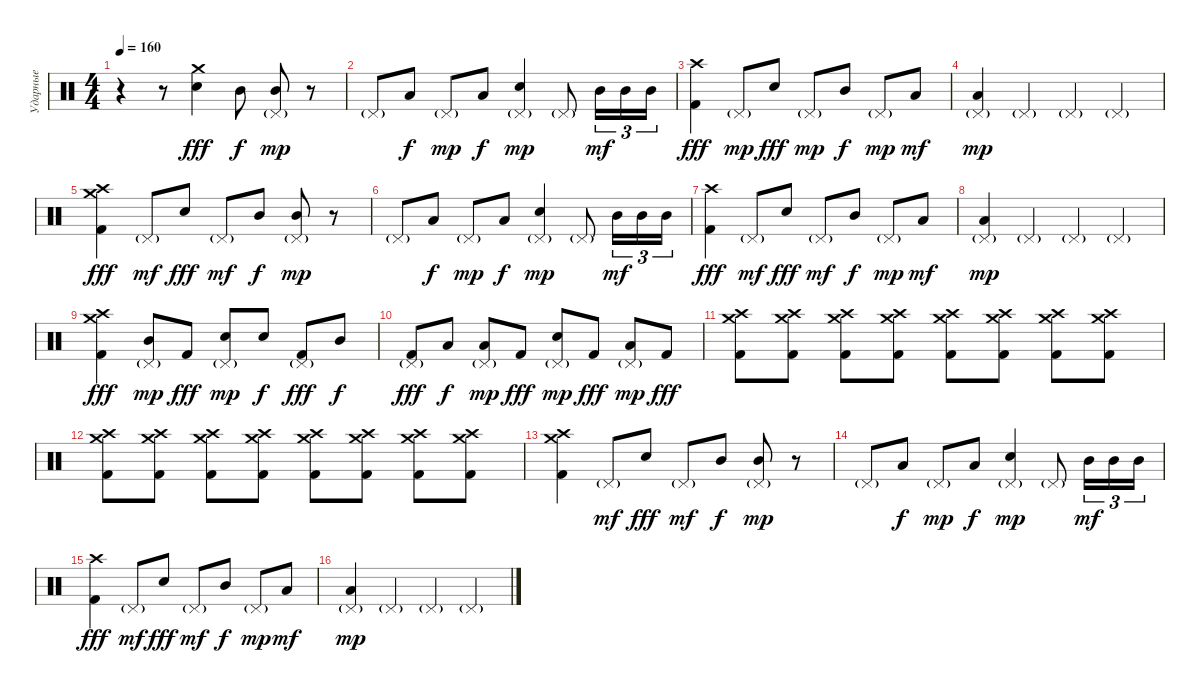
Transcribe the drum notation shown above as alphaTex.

\track ("Ударные" "Ударные") {instrument percussion}
\staff {score}
\articulation defaults
\ts (4 4)
\tempo 160
\clef neutral
\ks c
r.4{dy ff} r.8 ("Crash medium (hit)" "Electric Snare (hit)").4{dy fff} "Mid Tom (hit)".8{dy f} ("Mid Tom (hit)" "Pedal Hi-Hat (hit)"{g}).8{dy mp} r.8 |
"Pedal Hi-Hat (hit)"{g}.8 "Low Tom (hit)".8{dy f} "Pedal Hi-Hat (hit)"{g}.8{dy mp} "Low Floor Tom (hit)".8{dy f} ("Electric Snare (hit)" "Pedal Hi-Hat (hit)"{g}).4{dy mp} "Pedal Hi-Hat (hit)"{g}.8 "Mid Tom (hit)".16{tu (3 2) dy mf} "Mid Tom (hit)".16{tu (3 2)} "Mid Tom (hit)".16{tu (3 2)} |
("Crash high (hit)" "Kick (hit) 2").4{dy fff} "Pedal Hi-Hat (hit)"{g}.8{dy mp} "Electric Snare (hit)".8{dy fff} "Pedal Hi-Hat (hit)"{g}.8{dy mp} "Mid Tom (hit)".8{dy f} "Pedal Hi-Hat (hit)"{g}.8{dy mp} "Low Tom (hit)".8{dy mf} |
("Low Floor Tom (hit)" "Pedal Hi-Hat (hit)"{g}).4{dy mp} "Pedal Hi-Hat (hit)"{g}.4 "Pedal Hi-Hat (hit)"{g}.4 "Pedal Hi-Hat (hit)"{g}.4 |
("Crash high (hit)" "Crash medium (hit)" "Kick (hit) 2").4{dy fff} "Pedal Hi-Hat (hit)"{g}.8{dy mf} "Electric Snare (hit)".8{dy fff} "Pedal Hi-Hat (hit)"{g}.8{dy mf} "Mid Tom (hit)".8{dy f} ("Mid Tom (hit)" "Pedal Hi-Hat (hit)"{g}).8{dy mp} r.8 |
"Pedal Hi-Hat (hit)"{g}.8 "Low Tom (hit)".8{dy f} "Pedal Hi-Hat (hit)"{g}.8{dy mp} "Low Floor Tom (hit)".8{dy f} ("Electric Snare (hit)" "Pedal Hi-Hat (hit)"{g}).4{dy mp} "Pedal Hi-Hat (hit)"{g}.8 "Mid Tom (hit)".16{tu (3 2) dy mf} "Mid Tom (hit)".16{tu (3 2)} "Mid Tom (hit)".16{tu (3 2)} |
("Crash high (hit)" "Kick (hit) 2").4{dy fff} "Pedal Hi-Hat (hit)"{g}.8{dy mf} "Electric Snare (hit)".8{dy fff} "Pedal Hi-Hat (hit)"{g}.8{dy mf} "Mid Tom (hit)".8{dy f} "Pedal Hi-Hat (hit)"{g}.8{dy mp} "Low Tom (hit)".8{dy mf} |
("Low Floor Tom (hit)" "Pedal Hi-Hat (hit)"{g}).4{dy mp} "Pedal Hi-Hat (hit)"{g}.4 "Pedal Hi-Hat (hit)"{g}.4 "Pedal Hi-Hat (hit)"{g}.4 |
("Crash high (hit)" "Crash medium (hit)" "Kick (hit) 2").4{dy fff} ("Mid Tom (hit)" "Pedal Hi-Hat (hit)"{g}).8{dy mp} "Kick (hit) 2".8{dy fff} ("Electric Snare (hit)" "Pedal Hi-Hat (hit)"{g}).8{dy mp} "Electric Snare (hit)".8{dy f} ("Pedal Hi-Hat (hit)"{g} "Kick (hit) 2").8{dy fff} "Mid Tom (hit)".8{dy f} |
("Pedal Hi-Hat (hit)"{g} "Kick (hit) 2").8{dy fff} "Low Tom (hit)".8{dy f} ("Low Tom (hit)" "Pedal Hi-Hat (hit)"{g}).8{dy mp} "Kick (hit) 2".8{dy fff} ("Electric Snare (hit)" "Pedal Hi-Hat (hit)"{g}).8{dy mp} "Kick (hit) 2".8{dy fff} ("Low Floor Tom (hit)" "Pedal Hi-Hat (hit)"{g}).8{dy mp} "Kick (hit) 2".8{dy fff} |
("Crash high (hit)" "Crash medium (hit)" "Kick (hit) 2").8 ("Crash high (hit)" "Crash medium (hit)" "Kick (hit) 2").8 ("Crash high (hit)" "Crash medium (hit)" "Kick (hit) 2").8 ("Crash high (hit)" "Crash medium (hit)" "Kick (hit) 2").8 ("Crash high (hit)" "Crash medium (hit)" "Kick (hit) 2").8 ("Crash high (hit)" "Crash medium (hit)" "Kick (hit) 2").8 ("Crash high (hit)" "Crash medium (hit)" "Kick (hit) 2").8 ("Crash high (hit)" "Crash medium (hit)" "Kick (hit) 2").8 |
("Crash high (hit)" "Crash medium (hit)" "Kick (hit) 2").8 ("Crash high (hit)" "Crash medium (hit)" "Kick (hit) 2").8 ("Crash high (hit)" "Crash medium (hit)" "Kick (hit) 2").8 ("Crash high (hit)" "Crash medium (hit)" "Kick (hit) 2").8 ("Crash high (hit)" "Crash medium (hit)" "Kick (hit) 2").8 ("Crash high (hit)" "Crash medium (hit)" "Kick (hit) 2").8 ("Crash high (hit)" "Crash medium (hit)" "Kick (hit) 2").8 ("Crash high (hit)" "Crash medium (hit)" "Kick (hit) 2").8 |
("Crash high (hit)" "Crash medium (hit)" "Kick (hit) 2").4 "Pedal Hi-Hat (hit)"{g}.8{dy mf} "Electric Snare (hit)".8{dy fff} "Pedal Hi-Hat (hit)"{g}.8{dy mf} "Mid Tom (hit)".8{dy f} ("Mid Tom (hit)" "Pedal Hi-Hat (hit)"{g}).8{dy mp} r.8 |
"Pedal Hi-Hat (hit)"{g}.8 "Low Tom (hit)".8{dy f} "Pedal Hi-Hat (hit)"{g}.8{dy mp} "Low Floor Tom (hit)".8{dy f} ("Electric Snare (hit)" "Pedal Hi-Hat (hit)"{g}).4{dy mp} "Pedal Hi-Hat (hit)"{g}.8 "Mid Tom (hit)".16{tu (3 2) dy mf} "Mid Tom (hit)".16{tu (3 2)} "Mid Tom (hit)".16{tu (3 2)} |
("Crash high (hit)" "Kick (hit) 2").4{dy fff} "Pedal Hi-Hat (hit)"{g}.8{dy mf} "Electric Snare (hit)".8{dy fff} "Pedal Hi-Hat (hit)"{g}.8{dy mf} "Mid Tom (hit)".8{dy f} "Pedal Hi-Hat (hit)"{g}.8{dy mp} "Low Tom (hit)".8{dy mf} |
("Low Floor Tom (hit)" "Pedal Hi-Hat (hit)"{g}).4{dy mp} "Pedal Hi-Hat (hit)"{g}.4 "Pedal Hi-Hat (hit)"{g}.4 "Pedal Hi-Hat (hit)"{g}.4
